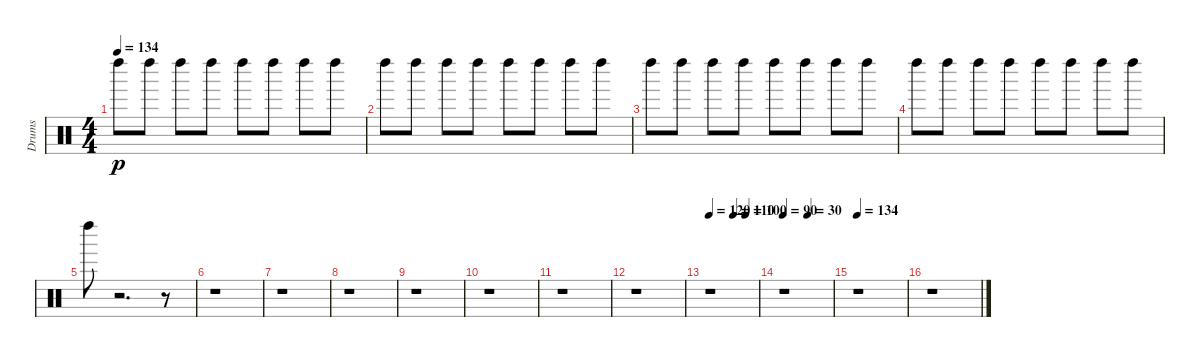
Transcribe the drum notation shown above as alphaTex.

\track ("Drums" "Drums") {instrument percussion}
\staff {score}
\articulation defaults
\ts (4 4)
\tempo 134
\clef neutral
\ks c "Left Maraca (hit)".8{dy p} "Left Maraca (hit)".8 "Left Maraca (hit)".8 "Left Maraca (hit)".8 "Left Maraca (hit)".8 "Left Maraca (hit)".8 "Left Maraca (hit)".8 "Left Maraca (hit)".8
|
"Left Maraca (hit)".8 "Left Maraca (hit)".8 "Left Maraca (hit)".8 "Left Maraca (hit)".8 "Left Maraca (hit)".8 "Left Maraca (hit)".8 "Left Maraca (hit)".8 "Left Maraca (hit)".8 |
"Left Maraca (hit)".8 "Left Maraca (hit)".8 "Left Maraca (hit)".8 "Left Maraca (hit)".8 "Left Maraca (hit)".8 "Left Maraca (hit)".8 "Left Maraca (hit)".8 "Left Maraca (hit)".8 |
"Left Maraca (hit)".8 "Left Maraca (hit)".8 "Left Maraca (hit)".8 "Left Maraca (hit)".8 "Left Maraca (hit)".8 "Left Maraca (hit)".8 "Left Maraca (hit)".8 "Left Maraca (hit)".8 |
"Left Maraca (hit)".8 r.2{d} r.8 |
r.1 |
r.1 |
r.1 |
r.1 |
r.1 |
r.1 |
r.1 |
\tempo 120
\tempo (110 0.5)
\tempo (100 0.75)
r.1 |
\tempo 90
\tempo (30 0.5)
r.1 |
\tempo 134
r.1 |
r.1
